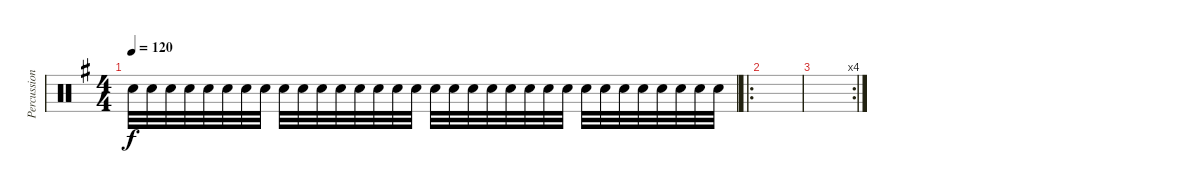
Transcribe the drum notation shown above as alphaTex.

\track ("Percussion 3" "Percussion") {instrument percussion}
\staff {score}
\articulation defaults
\ts (4 4)
\tempo 120
\clef neutral
\ks eminor "Electric Snare (hit)".32{dy f} "Electric Snare (hit)".32 "Electric Snare (hit)".32 "Electric Snare (hit)".32 "Electric Snare (hit)".32 "Electric Snare (hit)".32 "Electric Snare (hit)".32 "Electric Snare (hit)".32 "Electric Snare (hit)".32 "Electric Snare (hit)".32 "Electric Snare (hit)".32 "Electric Snare (hit)".32 "Electric Snare (hit)".32 "Electric Snare (hit)".32 "Electric Snare (hit)".32 "Electric Snare (hit)".32 "Electric Snare (hit)".32 "Electric Snare (hit)".32 "Electric Snare (hit)".32 "Electric Snare (hit)".32 "Electric Snare (hit)".32 "Electric Snare (hit)".32 "Electric Snare (hit)".32 "Electric Snare (hit)".32 "Electric Snare (hit)".32 "Electric Snare (hit)".32 "Electric Snare (hit)".32 "Electric Snare (hit)".32 "Electric Snare (hit)".32 "Electric Snare (hit)".32 "Electric Snare (hit)".32 "Electric Snare (hit)".32
|
\ro
|
\rc 4
